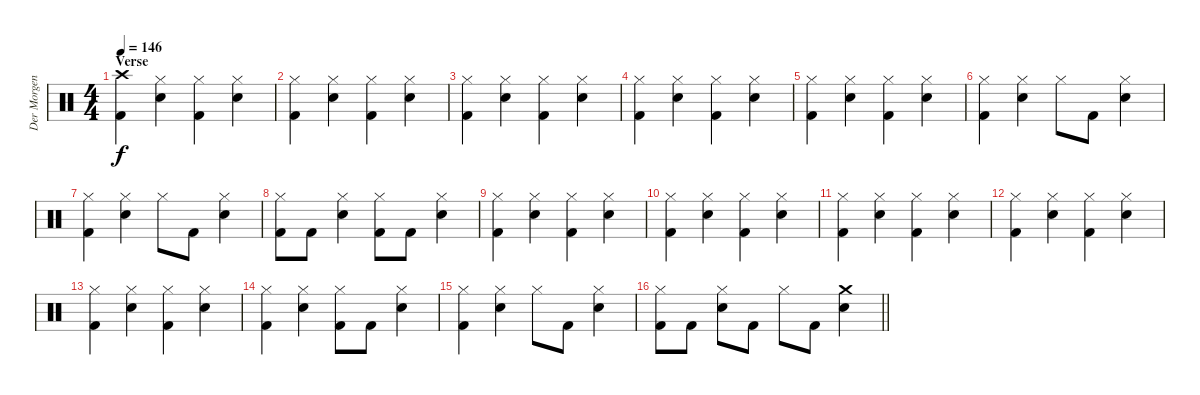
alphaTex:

\track ("Der Morgenstern" "Der Morgen") {instrument percussion}
\staff {score}
\articulation defaults
\ts (4 4)
\section ("" "Verse")
\tempo 146
\clef neutral
\ks c
("Crash high (hit)" "Kick (hit) 2").4{dy f} ("Hi-Hat (closed)" "Electric Snare (hit)").4 ("Hi-Hat (closed)" "Kick (hit) 2").4 ("Hi-Hat (closed)" "Electric Snare (hit)").4 |
("Hi-Hat (closed)" "Kick (hit) 2").4 ("Hi-Hat (closed)" "Electric Snare (hit)").4 ("Hi-Hat (closed)" "Kick (hit) 2").4 ("Hi-Hat (closed)" "Electric Snare (hit)").4 |
("Hi-Hat (closed)" "Kick (hit) 2").4 ("Hi-Hat (closed)" "Electric Snare (hit)").4 ("Hi-Hat (closed)" "Kick (hit) 2").4 ("Hi-Hat (closed)" "Electric Snare (hit)").4 |
("Hi-Hat (closed)" "Kick (hit) 2").4 ("Hi-Hat (closed)" "Electric Snare (hit)").4 ("Hi-Hat (closed)" "Kick (hit) 2").4 ("Hi-Hat (closed)" "Electric Snare (hit)").4 |
("Hi-Hat (closed)" "Kick (hit) 2").4 ("Hi-Hat (closed)" "Electric Snare (hit)").4 ("Hi-Hat (closed)" "Kick (hit) 2").4 ("Hi-Hat (closed)" "Electric Snare (hit)").4 |
("Hi-Hat (closed)" "Kick (hit) 2").4 ("Hi-Hat (closed)" "Electric Snare (hit)").4 "Hi-Hat (closed)".8 "Kick (hit) 2".8 ("Hi-Hat (closed)" "Electric Snare (hit)").4 |
("Hi-Hat (closed)" "Kick (hit) 2").4 ("Hi-Hat (closed)" "Electric Snare (hit)").4 "Hi-Hat (closed)".8 "Kick (hit) 2".8 ("Hi-Hat (closed)" "Electric Snare (hit)").4 |
("Hi-Hat (closed)" "Kick (hit) 2").8 "Kick (hit) 2".8 ("Hi-Hat (closed)" "Electric Snare (hit)").4 ("Hi-Hat (closed)" "Kick (hit) 2").8 "Kick (hit) 2".8 ("Hi-Hat (closed)" "Electric Snare (hit)").4 |
("Hi-Hat (closed)" "Kick (hit) 2").4 ("Hi-Hat (closed)" "Electric Snare (hit)").4 ("Hi-Hat (closed)" "Kick (hit) 2").4 ("Hi-Hat (closed)" "Electric Snare (hit)").4 |
("Hi-Hat (closed)" "Kick (hit) 2").4 ("Hi-Hat (closed)" "Electric Snare (hit)").4 ("Hi-Hat (closed)" "Kick (hit) 2").4 ("Hi-Hat (closed)" "Electric Snare (hit)").4 |
("Hi-Hat (closed)" "Kick (hit) 2").4 ("Hi-Hat (closed)" "Electric Snare (hit)").4 ("Hi-Hat (closed)" "Kick (hit) 2").4 ("Hi-Hat (closed)" "Electric Snare (hit)").4 |
("Hi-Hat (closed)" "Kick (hit) 2").4 ("Hi-Hat (closed)" "Electric Snare (hit)").4 ("Hi-Hat (closed)" "Kick (hit) 2").4 ("Hi-Hat (closed)" "Electric Snare (hit)").4 |
("Hi-Hat (closed)" "Kick (hit) 2").4 ("Hi-Hat (closed)" "Electric Snare (hit)").4 ("Hi-Hat (closed)" "Kick (hit) 2").4 ("Hi-Hat (closed)" "Electric Snare (hit)").4 |
("Hi-Hat (closed)" "Kick (hit) 2").4 ("Hi-Hat (closed)" "Electric Snare (hit)").4 ("Hi-Hat (closed)" "Kick (hit) 2").8 "Kick (hit) 2".8 ("Hi-Hat (closed)" "Electric Snare (hit)").4 |
("Hi-Hat (closed)" "Kick (hit) 2").4 ("Hi-Hat (closed)" "Electric Snare (hit)").4 "Hi-Hat (closed)".8 "Kick (hit) 2".8 ("Hi-Hat (closed)" "Electric Snare (hit)").4 |
\barLineRight lightlight
("Hi-Hat (closed)" "Kick (hit) 2").8 "Kick (hit) 2".8 ("Hi-Hat (closed)" "Electric Snare (hit)").8 "Kick (hit) 2".8 "Hi-Hat (closed)".8 "Kick (hit) 2".8 ("Crash medium (hit)" "Electric Snare (hit)").4
